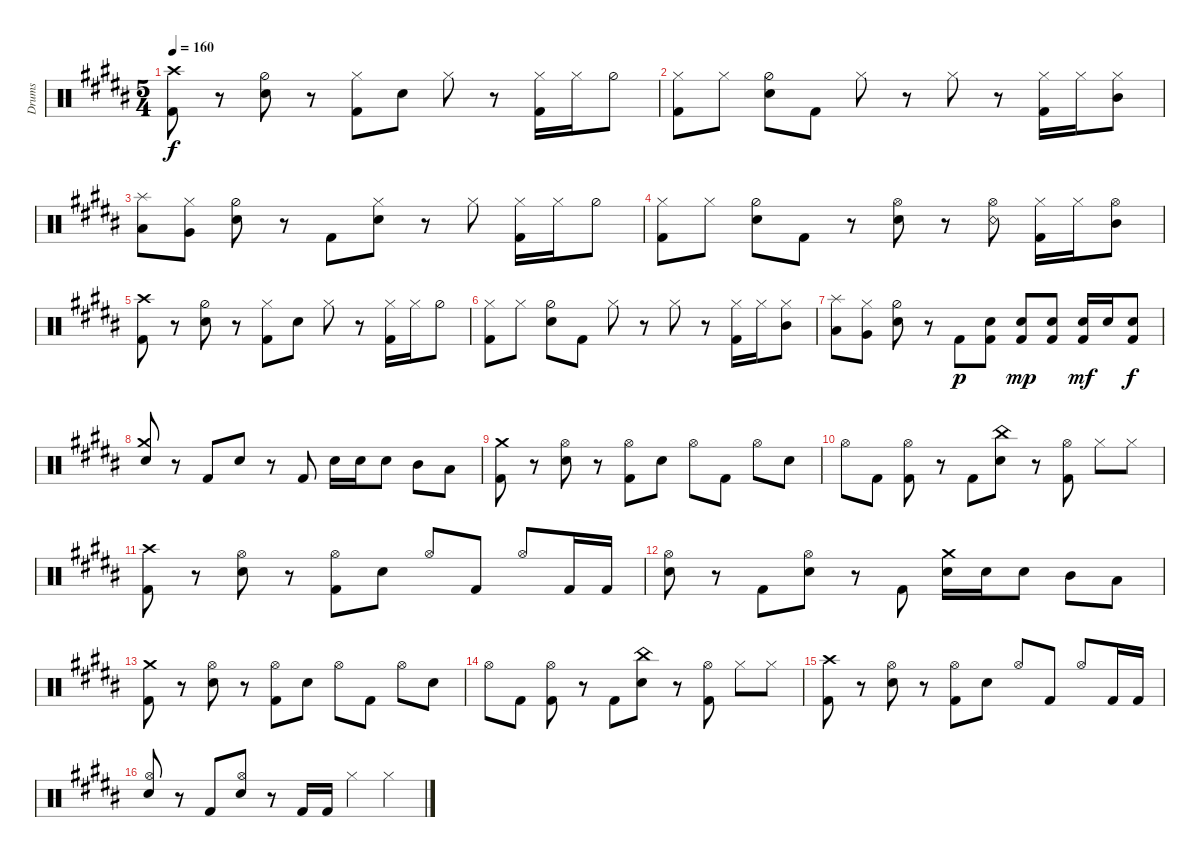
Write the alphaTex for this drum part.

\bracketExtendMode groupsimilarinstruments
\otherSystemsTrackNameOrientation horizontal
\track ("Drumkit" "Drums") {instrument percussion}
\staff {score}
\articulation defaults
\ts (5 4)
\tempo 160
\clef neutral
\ks b
("Kick (hit) 2"{acc bb} "Crash high (hit)"{acc bb}).8{dy f beam Down} r.8{beam Down} ("Snare (hit) 2"{acc bb} "Hi-Hat (half)"{acc bb}).8{beam Down} r.8{beam Down} ("Kick (hit) 2"{acc bb} "Hi-Hat (closed)"{acc bb}).8{beam Down} "Snare (hit) 2"{acc bb}.8{beam Down} "Hi-Hat (closed)"{acc bb}.8{beam Down} r.8{beam Down} ("Hi-Hat (closed)"{acc bb} "Kick (hit) 2"{acc bb}).16{beam Down} "Hi-Hat (closed)"{acc bb}.16{beam Down} "Hi-Hat (half)"{acc bb}.8{beam Down} |
("Kick (hit) 2"{acc bb} "Hi-Hat (closed)"{acc bb}).8{beam Down} "Hi-Hat (closed)"{acc bb}.8{beam Down} ("Snare (hit) 2"{acc bb} "Hi-Hat (half)"{acc bb}).8{beam Down} "Kick (hit) 2"{acc bb}.8{beam Down} "Hi-Hat (closed)"{acc bb}.8{beam Down} r.8{beam Down} "Hi-Hat (closed)"{acc bb}.8{beam Down} r.8{beam Down} ("Hi-Hat (closed)"{acc bb} "Kick (hit) 2"{acc bb}).16{beam Down} "Hi-Hat (closed)"{acc bb}.16{beam Down} ("Hi-Hat (closed)"{acc bb} "Mid Tom (hit)"{acc bb}).8{beam Down} |
("Low Tom (hit)"{acc bb} "Splash (hit)"{acc bb}).8{beam Down} ("Hi-Hat (closed)"{acc bb} "Very Low Tom (hit)"{acc bb}).8{beam Down} ("Snare (hit) 2"{acc bb} "Hi-Hat (half)"{acc bb}).8{beam Down} r.8{beam Down} "Kick (hit) 2"{acc bb}.8{beam Down} ("Snare (hit) 2"{acc bb} "Hi-Hat (closed)"{acc bb}).8{beam Down} r.8{beam Down} "Hi-Hat (closed)"{acc bb}.8{beam Down} ("Hi-Hat (closed)"{acc bb} "Kick (hit) 2"{acc bb}).16{beam Down} "Hi-Hat (closed)"{acc bb}.16{beam Down} "Hi-Hat (half)"{acc bb}.8{beam Down} |
("Kick (hit) 2"{acc bb} "Hi-Hat (closed)"{acc bb}).8{beam Down} "Hi-Hat (closed)"{acc bb}.8{beam Down} ("Snare (hit) 2"{acc bb} "Hi-Hat (half)"{acc bb}).8{beam Down} "Kick (hit) 2"{acc bb}.8{beam Down} r.8{beam Down} ("Snare (hit) 2"{acc bb} "Hi-Hat (open)"{acc bb}).8{beam Down} r.8{beam Down} ("Hi-Hat (open)"{acc bb} "Snare (rim shot)"{acc bb}).8{beam Down} ("Hi-Hat (closed)"{acc bb} "Kick (hit) 2"{acc bb}).16{beam Down} "Hi-Hat (closed)"{acc bb}.16{beam Down} ("Hi-Hat (open)"{acc bb} "Mid Tom (hit)"{acc bb}).8{beam Down} |
("Kick (hit) 2"{acc bb} "Crash high (hit)"{acc bb}).8{beam Down} r.8{beam Down} ("Snare (hit) 2"{acc bb} "Hi-Hat (half)"{acc bb}).8{beam Down} r.8{beam Down} ("Kick (hit) 2"{acc bb} "Hi-Hat (closed)"{acc bb}).8{beam Down} "Snare (hit) 2"{acc bb}.8{beam Down} "Hi-Hat (closed)"{acc bb}.8{beam Down} r.8{beam Down} ("Hi-Hat (closed)"{acc bb} "Kick (hit) 2"{acc bb}).16{beam Down} "Hi-Hat (closed)"{acc bb}.16{beam Down} "Hi-Hat (half)"{acc bb}.8{beam Down} |
("Kick (hit) 2"{acc bb} "Hi-Hat (closed)"{acc bb}).8{beam Down} "Hi-Hat (closed)"{acc bb}.8{beam Down} ("Snare (hit) 2"{acc bb} "Hi-Hat (half)"{acc bb}).8{beam Down} "Kick (hit) 2"{acc bb}.8{beam Down} "Hi-Hat (closed)"{acc bb}.8{beam Down} r.8{beam Down} "Hi-Hat (closed)"{acc bb}.8{beam Down} r.8{beam Down} ("Hi-Hat (closed)"{acc bb} "Kick (hit) 2"{acc bb}).16{beam Down} "Hi-Hat (closed)"{acc bb}.16{beam Down} ("Hi-Hat (closed)"{acc bb} "Mid Tom (hit)"{acc bb}).8{beam Down} |
("Low Tom (hit)"{acc bb} "Splash (hit)"{acc bb}).8{beam Down} ("Hi-Hat (closed)"{acc bb} "Very Low Tom (hit)"{acc bb}).8{beam Down} ("Snare (hit) 2"{acc bb} "Hi-Hat (half)"{acc bb}).8{beam Down} r.8{beam Down} "Kick (hit) 2"{acc bb}.8{dy p beam Down} ("Snare (hit) 2"{acc bb} "Kick (hit) 2"{acc bb}).8{beam Down} ("Kick (hit) 2"{acc bb} "Snare (hit) 2"{acc bb}).8{dy mp beam Up} ("Kick (hit) 2"{acc bb} "Snare (hit) 2"{acc bb}).8{beam Up} ("Kick (hit) 2"{acc bb} "Snare (hit) 2"{acc bb}).16{dy mf beam Up} "Snare (hit) 2"{acc bb}.16{beam Up} ("Kick (hit) 2"{acc bb} "Snare (hit) 2"{acc bb}).8{dy f beam Up} |
("Crash medium (hit)"{acc bb} "Snare (hit) 2"{acc bb}).8{beam Up} r.8{beam Up} "Kick (hit) 2"{acc bb}.8{beam Up} "Snare (hit) 2"{acc bb}.8{beam Up} r.8{beam Up} "Kick (hit) 2"{acc bb}.8{beam Up} "Snare (hit) 2"{acc bb}.16{beam Down} "Snare (hit) 2"{acc bb}.16{beam Down} "Snare (hit) 2"{acc bb}.8{beam Down} "Mid Tom (hit)"{acc bb}.8{beam Down} "Low Tom (hit)"{acc bb}.8{beam Down} |
("Kick (hit) 2"{acc bb} "Crash medium (hit)"{acc bb}).8{beam Down} r.8{beam Down} ("Snare (hit) 2"{acc bb} "Hi-Hat (open)"{acc bb}).8{beam Down} r.8{beam Down} ("Kick (hit) 2"{acc bb} "Hi-Hat (open)"{acc bb}).8{beam Down} "Snare (hit) 2"{acc bb}.8{beam Down} "Hi-Hat (open)"{acc bb}.8{beam Down} "Kick (hit) 2"{acc bb}.8{beam Down} "Hi-Hat (open)"{acc bb}.8{beam Down} "Snare (hit) 2"{acc bb}.8{beam Down} |
"Hi-Hat (open)"{acc bb}.8{beam Down} "Kick (hit) 2"{acc bb}.8{beam Down} ("Kick (hit) 2"{acc bb} "Hi-Hat (open)"{acc bb}).8{beam Down} r.8{beam Down} "Kick (hit) 2"{acc bb}.8{beam Down} ("China (hit)"{acc bb} "Snare (hit) 2"{acc bb}).8{beam Down} r.8{beam Down} ("Hi-Hat (open)"{acc bb} "Kick (hit) 2"{acc bb}).8{beam Down} "Hi-Hat (closed)"{acc bb}.8{beam Down} "Hi-Hat (closed)"{acc bb}.8{beam Down} |
("Kick (hit) 2"{acc bb} "Crash high (hit)"{acc bb}).8{beam Down} r.8{beam Down} ("Snare (hit) 2"{acc bb} "Hi-Hat (open)"{acc bb}).8{beam Down} r.8{beam Down} ("Kick (hit) 2"{acc bb} "Hi-Hat (open)"{acc bb}).8{beam Down} "Snare (hit) 2"{acc bb}.8{beam Down} "Hi-Hat (open)"{acc bb}.8{beam Up} "Kick (hit) 2"{acc bb}.8{beam Up} "Hi-Hat (open)"{acc bb}.8{beam Up} "Kick (hit) 2"{acc bb}.16{beam Up} "Kick (hit) 2"{acc bb}.16{beam Up} |
("Snare (hit) 2"{acc bb} "Hi-Hat (open)"{acc bb}).8{beam Down} r.8{beam Down} "Kick (hit) 2"{acc bb}.8{beam Down} ("Snare (hit) 2"{acc bb} "Hi-Hat (open)"{acc bb}).8{beam Down} r.8{beam Down} "Kick (hit) 2"{acc bb}.8{beam Down} ("Snare (hit) 2"{acc bb} "Crash medium (hit)"{acc bb}).16{beam Down} "Snare (hit) 2"{acc bb}.16{beam Down} "Snare (hit) 2"{acc bb}.8{beam Down} "Mid Tom (hit)"{acc bb}.8{beam Down} "Low Tom (hit)"{acc bb}.8{beam Down} |
("Kick (hit) 2"{acc bb} "Crash medium (hit)"{acc bb}).8{beam Down} r.8{beam Down} ("Snare (hit) 2"{acc bb} "Hi-Hat (open)"{acc bb}).8{beam Down} r.8{beam Down} ("Kick (hit) 2"{acc bb} "Hi-Hat (open)"{acc bb}).8{beam Down} "Snare (hit) 2"{acc bb}.8{beam Down} "Hi-Hat (open)"{acc bb}.8{beam Down} "Kick (hit) 2"{acc bb}.8{beam Down} "Hi-Hat (open)"{acc bb}.8{beam Down} "Snare (hit) 2"{acc bb}.8{beam Down} |
"Hi-Hat (open)"{acc bb}.8{beam Down} "Kick (hit) 2"{acc bb}.8{beam Down} ("Kick (hit) 2"{acc bb} "Hi-Hat (open)"{acc bb}).8{beam Down} r.8{beam Down} "Kick (hit) 2"{acc bb}.8{beam Down} ("China (hit)"{acc bb} "Snare (hit) 2"{acc bb}).8{beam Down} r.8{beam Down} ("Hi-Hat (open)"{acc bb} "Kick (hit) 2"{acc bb}).8{beam Down} "Hi-Hat (closed)"{acc bb}.8{beam Down} "Hi-Hat (closed)"{acc bb}.8{beam Down} |
("Kick (hit) 2"{acc bb} "Crash high (hit)"{acc bb}).8{beam Down} r.8{beam Down} ("Snare (hit) 2"{acc bb} "Hi-Hat (open)"{acc bb}).8{beam Down} r.8{beam Down} ("Kick (hit) 2"{acc bb} "Hi-Hat (open)"{acc bb}).8{beam Down} "Snare (hit) 2"{acc bb}.8{beam Down} "Hi-Hat (open)"{acc bb}.8{beam Up} "Kick (hit) 2"{acc bb}.8{beam Up} "Hi-Hat (open)"{acc bb}.8{beam Up} "Kick (hit) 2"{acc bb}.16{beam Up} "Kick (hit) 2"{acc bb}.16{beam Up} |
("Snare (hit) 2"{acc bb} "Hi-Hat (open)"{acc bb}).8{beam Up} r.8{beam Up} "Kick (hit) 2"{acc bb}.8{beam Up} ("Snare (hit) 2"{acc bb} "Hi-Hat (open)"{acc bb}).8{beam Up} r.8{beam Up} "Kick (hit) 2"{acc bb}.16{beam Up} "Kick (hit) 2"{acc bb}.16{beam Up} "Hi-Hat (closed)"{acc bb}.4{beam Down} "Hi-Hat (closed)"{acc bb}.4{beam Down}
